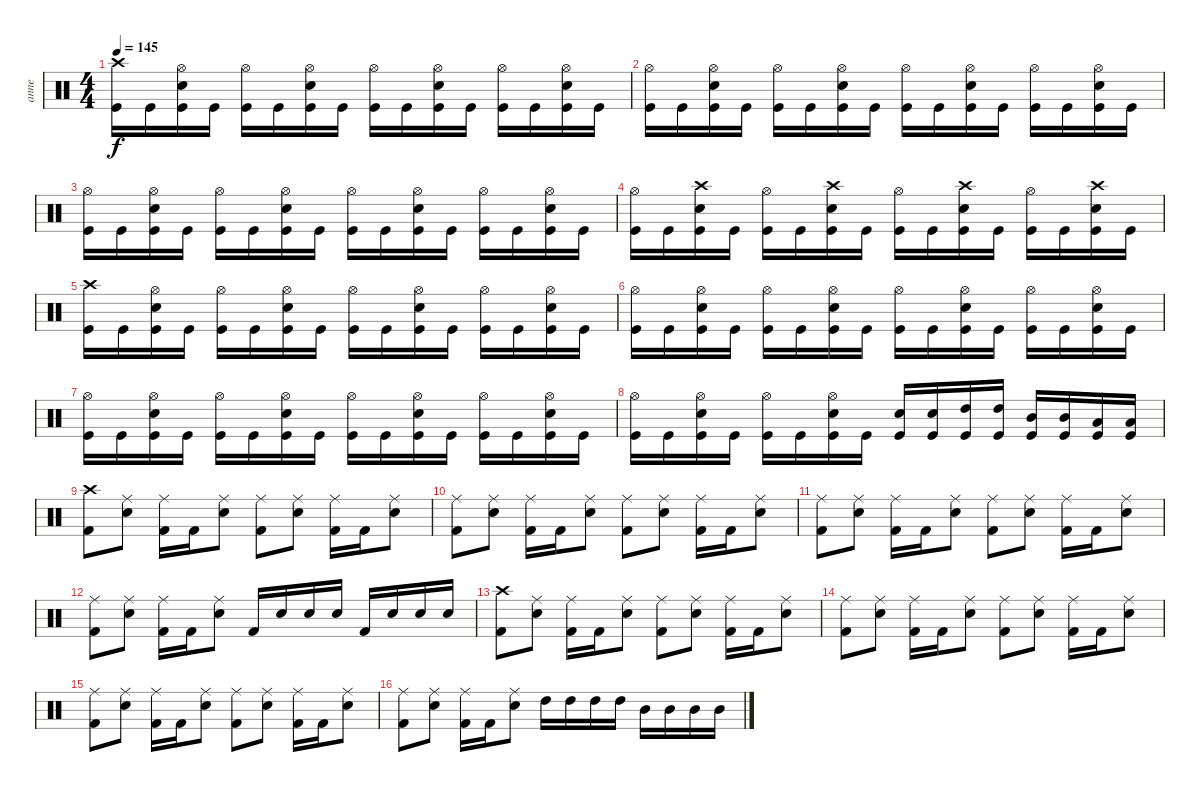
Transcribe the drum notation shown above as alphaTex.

\track ("anne" "anne") {instrument percussion}
\staff {score}
\articulation defaults
\ts (4 4)
\tempo 145
\clef neutral
\ks c
("Crash high (hit)" "Kick (hit)").16{dy f} "Kick (hit)".16 ("Hi-Hat (open)" "Snare (hit) 2" "Kick (hit)").16 "Kick (hit)".16 ("Hi-Hat (open)" "Kick (hit)").16 "Kick (hit)".16 ("Hi-Hat (open)" "Snare (hit) 2" "Kick (hit)").16 "Kick (hit)".16 ("Hi-Hat (open)" "Kick (hit)").16 "Kick (hit)".16 ("Hi-Hat (open)" "Snare (hit) 2" "Kick (hit)").16 "Kick (hit)".16 ("Hi-Hat (open)" "Kick (hit)").16 "Kick (hit)".16 ("Hi-Hat (open)" "Snare (hit) 2" "Kick (hit)").16 "Kick (hit)".16 |
("Hi-Hat (open)" "Kick (hit)").16 "Kick (hit)".16 ("Hi-Hat (open)" "Snare (hit) 2" "Kick (hit)").16 "Kick (hit)".16 ("Hi-Hat (open)" "Kick (hit)").16 "Kick (hit)".16 ("Hi-Hat (open)" "Snare (hit) 2" "Kick (hit)").16 "Kick (hit)".16 ("Hi-Hat (open)" "Kick (hit)").16 "Kick (hit)".16 ("Hi-Hat (open)" "Snare (hit) 2" "Kick (hit)").16 "Kick (hit)".16 ("Hi-Hat (open)" "Kick (hit)").16 "Kick (hit)".16 ("Hi-Hat (open)" "Snare (hit) 2" "Kick (hit)").16 "Kick (hit)".16 |
("Hi-Hat (open)" "Kick (hit)").16 "Kick (hit)".16 ("Hi-Hat (open)" "Snare (hit) 2" "Kick (hit)").16 "Kick (hit)".16 ("Hi-Hat (open)" "Kick (hit)").16 "Kick (hit)".16 ("Hi-Hat (open)" "Snare (hit) 2" "Kick (hit)").16 "Kick (hit)".16 ("Hi-Hat (open)" "Kick (hit)").16 "Kick (hit)".16 ("Hi-Hat (open)" "Snare (hit) 2" "Kick (hit)").16 "Kick (hit)".16 ("Hi-Hat (open)" "Kick (hit)").16 "Kick (hit)".16 ("Hi-Hat (open)" "Snare (hit) 2" "Kick (hit)").16 "Kick (hit)".16 |
("Hi-Hat (open)" "Kick (hit)").16 "Kick (hit)".16 ("Crash high (hit)" "Snare (hit) 2" "Kick (hit)").16 "Kick (hit)".16 ("Hi-Hat (open)" "Kick (hit)").16 "Kick (hit)".16 ("Crash high (hit)" "Snare (hit) 2" "Kick (hit)").16 "Kick (hit)".16 ("Hi-Hat (open)" "Kick (hit)").16 "Kick (hit)".16 ("Crash high (hit)" "Snare (hit) 2" "Kick (hit)").16 "Kick (hit)".16 ("Hi-Hat (open)" "Kick (hit)").16 "Kick (hit)".16 ("Crash high (hit)" "Snare (hit) 2" "Kick (hit)").16 "Kick (hit)".16 |
("Crash high (hit)" "Kick (hit)").16 "Kick (hit)".16 ("Hi-Hat (open)" "Snare (hit) 2" "Kick (hit)").16 "Kick (hit)".16 ("Hi-Hat (open)" "Kick (hit)").16 "Kick (hit)".16 ("Hi-Hat (open)" "Snare (hit) 2" "Kick (hit)").16 "Kick (hit)".16 ("Hi-Hat (open)" "Kick (hit)").16 "Kick (hit)".16 ("Hi-Hat (open)" "Snare (hit) 2" "Kick (hit)").16 "Kick (hit)".16 ("Hi-Hat (open)" "Kick (hit)").16 "Kick (hit)".16 ("Hi-Hat (open)" "Snare (hit) 2" "Kick (hit)").16 "Kick (hit)".16 |
("Hi-Hat (open)" "Kick (hit)").16 "Kick (hit)".16 ("Hi-Hat (open)" "Snare (hit) 2" "Kick (hit)").16 "Kick (hit)".16 ("Hi-Hat (open)" "Kick (hit)").16 "Kick (hit)".16 ("Hi-Hat (open)" "Snare (hit) 2" "Kick (hit)").16 "Kick (hit)".16 ("Hi-Hat (open)" "Kick (hit)").16 "Kick (hit)".16 ("Hi-Hat (open)" "Snare (hit) 2" "Kick (hit)").16 "Kick (hit)".16 ("Hi-Hat (open)" "Kick (hit)").16 "Kick (hit)".16 ("Hi-Hat (open)" "Snare (hit) 2" "Kick (hit)").16 "Kick (hit)".16 |
("Hi-Hat (open)" "Kick (hit)").16 "Kick (hit)".16 ("Hi-Hat (open)" "Snare (hit) 2" "Kick (hit)").16 "Kick (hit)".16 ("Hi-Hat (open)" "Kick (hit)").16 "Kick (hit)".16 ("Hi-Hat (open)" "Snare (hit) 2" "Kick (hit)").16 "Kick (hit)".16 ("Hi-Hat (open)" "Kick (hit)").16 "Kick (hit)".16 ("Hi-Hat (open)" "Snare (hit) 2" "Kick (hit)").16 "Kick (hit)".16 ("Hi-Hat (open)" "Kick (hit)").16 "Kick (hit)".16 ("Hi-Hat (open)" "Snare (hit) 2" "Kick (hit)").16 "Kick (hit)".16 |
("Hi-Hat (open)" "Kick (hit)").16 "Kick (hit)".16 ("Hi-Hat (open)" "Snare (hit) 2" "Kick (hit)").16 "Kick (hit)".16 ("Hi-Hat (open)" "Kick (hit)").16 "Kick (hit)".16 ("Hi-Hat (open)" "Snare (hit) 2" "Kick (hit)").16 "Kick (hit)".16 ("Snare (hit) 2" "Kick (hit)").16 ("Snare (hit) 2" "Kick (hit)").16 ("High Tom (hit)" "Kick (hit)").16 ("High Tom (hit)" "Kick (hit)").16 ("Mid Tom (hit)" "Kick (hit)").16 ("Mid Tom (hit)" "Kick (hit)").16 ("Low Tom (hit)" "Kick (hit)").16 ("Low Tom (hit)" "Kick (hit)").16 |
("Kick (hit) 2" "Crash high (hit)").8 ("Snare (hit) 2" "Ride (middle)").8 ("Kick (hit) 2" "Ride (middle)").16 "Kick (hit) 2".16 ("Snare (hit) 2" "Ride (middle)").8 ("Kick (hit) 2" "Ride (middle)").8 ("Snare (hit) 2" "Ride (middle)").8 ("Kick (hit) 2" "Ride (middle)").16 "Kick (hit) 2".16 ("Snare (hit) 2" "Ride (middle)").8 |
("Kick (hit) 2" "Ride (middle)").8 ("Snare (hit) 2" "Ride (middle)").8 ("Kick (hit) 2" "Ride (middle)").16 "Kick (hit) 2".16 ("Snare (hit) 2" "Ride (middle)").8 ("Kick (hit) 2" "Ride (middle)").8 ("Snare (hit) 2" "Ride (middle)").8 ("Kick (hit) 2" "Ride (middle)").16 "Kick (hit) 2".16 ("Snare (hit) 2" "Ride (middle)").8 |
("Kick (hit) 2" "Ride (middle)").8 ("Snare (hit) 2" "Ride (middle)").8 ("Kick (hit) 2" "Ride (middle)").16 "Kick (hit) 2".16 ("Snare (hit) 2" "Ride (middle)").8 ("Kick (hit) 2" "Ride (middle)").8 ("Snare (hit) 2" "Ride (middle)").8 ("Kick (hit) 2" "Ride (middle)").16 "Kick (hit) 2".16 ("Snare (hit) 2" "Ride (middle)").8 |
("Ride (middle)" "Kick (hit) 2").8 ("Ride (middle)" "Snare (hit) 2").8 ("Ride (middle)" "Kick (hit) 2").16 "Kick (hit) 2".16 ("Ride (middle)" "Snare (hit) 2").8 "Kick (hit) 2".16 "Snare (hit) 2".16 "Snare (hit) 2".16 "Snare (hit) 2".16 "Kick (hit) 2".16 "Snare (hit) 2".16 "Snare (hit) 2".16 "Snare (hit) 2".16 |
("Kick (hit) 2" "Crash high (hit)").8 ("Snare (hit) 2" "Ride (middle)").8 ("Kick (hit) 2" "Ride (middle)").16 "Kick (hit) 2".16 ("Snare (hit) 2" "Ride (middle)").8 ("Kick (hit) 2" "Ride (middle)").8 ("Snare (hit) 2" "Ride (middle)").8 ("Kick (hit) 2" "Ride (middle)").16 "Kick (hit) 2".16 ("Snare (hit) 2" "Ride (middle)").8 |
("Kick (hit) 2" "Ride (middle)").8 ("Snare (hit) 2" "Ride (middle)").8 ("Kick (hit) 2" "Ride (middle)").16 "Kick (hit) 2".16 ("Snare (hit) 2" "Ride (middle)").8 ("Kick (hit) 2" "Ride (middle)").8 ("Snare (hit) 2" "Ride (middle)").8 ("Kick (hit) 2" "Ride (middle)").16 "Kick (hit) 2".16 ("Snare (hit) 2" "Ride (middle)").8 |
("Kick (hit) 2" "Ride (middle)").8 ("Snare (hit) 2" "Ride (middle)").8 ("Kick (hit) 2" "Ride (middle)").16 "Kick (hit) 2".16 ("Snare (hit) 2" "Ride (middle)").8 ("Kick (hit) 2" "Ride (middle)").8 ("Snare (hit) 2" "Ride (middle)").8 ("Kick (hit) 2" "Ride (middle)").16 "Kick (hit) 2".16 ("Snare (hit) 2" "Ride (middle)").8 |
("Ride (middle)" "Kick (hit) 2").8 ("Ride (middle)" "Snare (hit) 2").8 ("Ride (middle)" "Kick (hit) 2").16 "Kick (hit) 2".16 ("Ride (middle)" "Snare (hit) 2").8 "High Tom (hit)".16 "High Tom (hit)".16 "High Tom (hit)".16 "High Tom (hit)".16 "Mid Tom (hit)".16 "Mid Tom (hit)".16 "Mid Tom (hit)".16 "Mid Tom (hit)".16
